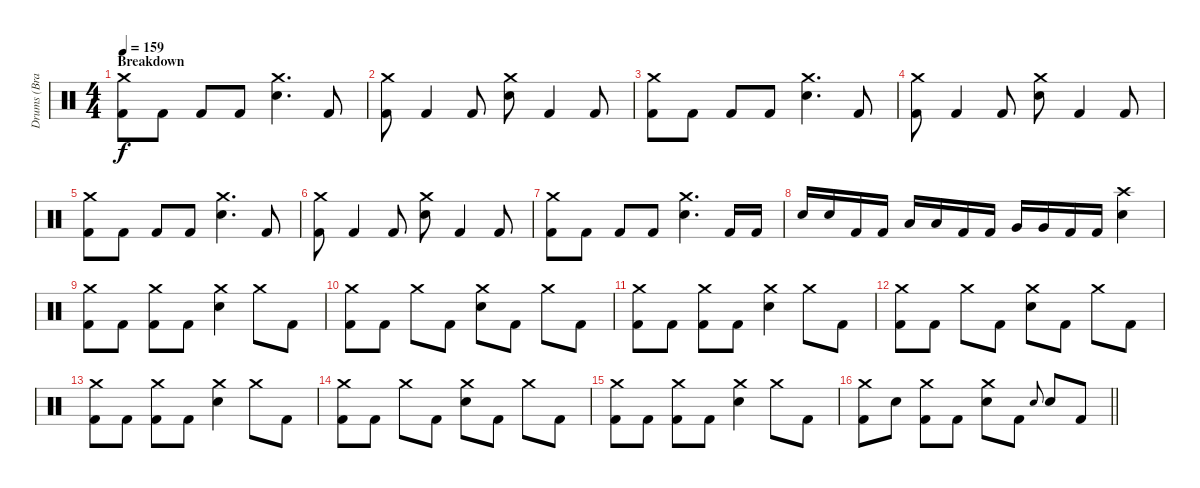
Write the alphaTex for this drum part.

\track ("Drums (Brandon Saller)" "Drums (Bra") {instrument percussion}
\staff {score}
\articulation defaults
\ts (4 4)
\section ("" "Breakdown")
\tempo 159
\clef neutral
\ks c
("Crash medium (hit)" "Kick (hit) 2").8{dy f} "Kick (hit) 2".8 "Kick (hit) 2".8 "Kick (hit) 2".8 ("Crash medium (hit)" "Electric Snare (hit)").4{d} "Kick (hit) 2".8 |
("Crash medium (hit)" "Kick (hit) 2").8 "Kick (hit) 2".4 "Kick (hit) 2".8 ("Crash medium (hit)" "Electric Snare (hit)").8 "Kick (hit) 2".4 "Kick (hit) 2".8 |
("Crash medium (hit)" "Kick (hit) 2").8 "Kick (hit) 2".8 "Kick (hit) 2".8 "Kick (hit) 2".8 ("Crash medium (hit)" "Electric Snare (hit)").4{d} "Kick (hit) 2".8 |
("Crash medium (hit)" "Kick (hit) 2").8 "Kick (hit) 2".4 "Kick (hit) 2".8 ("Crash medium (hit)" "Electric Snare (hit)").8 "Kick (hit) 2".4 "Kick (hit) 2".8 |
("Crash medium (hit)" "Kick (hit) 2").8 "Kick (hit) 2".8 "Kick (hit) 2".8 "Kick (hit) 2".8 ("Crash medium (hit)" "Electric Snare (hit)").4{d} "Kick (hit) 2".8 |
("Crash medium (hit)" "Kick (hit) 2").8 "Kick (hit) 2".4 "Kick (hit) 2".8 ("Crash medium (hit)" "Electric Snare (hit)").8 "Kick (hit) 2".4 "Kick (hit) 2".8 |
("Crash medium (hit)" "Kick (hit) 2").8 "Kick (hit) 2".8 "Kick (hit) 2".8 "Kick (hit) 2".8 ("Crash medium (hit)" "Electric Snare (hit)").4{d} "Kick (hit) 2".16 "Kick (hit) 2".16 |
"Electric Snare (hit)".16 "Electric Snare (hit)".16 "Kick (hit) 2".16 "Kick (hit) 2".16 "Low Tom (hit)".16 "Low Tom (hit)".16 "Kick (hit) 2".16 "Kick (hit) 2".16 "Very Low Tom (hit)".16 "Very Low Tom (hit)".16 "Kick (hit) 2".16 "Kick (hit) 2".16 ("Crash high (hit)" "Electric Snare (hit)").4 |
("Crash medium (hit)" "Kick (hit) 2").8 "Kick (hit) 2".8 ("Crash medium (hit)" "Kick (hit) 2").8 "Kick (hit) 2".8 ("Crash medium (hit)" "Electric Snare (hit)").4 "Crash medium (hit)".8 "Kick (hit) 2".8 |
("Crash medium (hit)" "Kick (hit) 2").8 "Kick (hit) 2".8 "Crash medium (hit)".8 "Kick (hit) 2".8 ("Crash medium (hit)" "Electric Snare (hit)").8 "Kick (hit) 2".8 "Crash medium (hit)".8 "Kick (hit) 2".8 |
("Crash medium (hit)" "Kick (hit) 2").8 "Kick (hit) 2".8 ("Crash medium (hit)" "Kick (hit) 2").8 "Kick (hit) 2".8 ("Crash medium (hit)" "Electric Snare (hit)").4 "Crash medium (hit)".8 "Kick (hit) 2".8 |
("Crash medium (hit)" "Kick (hit) 2").8 "Kick (hit) 2".8 "Crash medium (hit)".8 "Kick (hit) 2".8 ("Crash medium (hit)" "Electric Snare (hit)").8 "Kick (hit) 2".8 "Crash medium (hit)".8 "Kick (hit) 2".8 |
("Crash medium (hit)" "Kick (hit) 2").8 "Kick (hit) 2".8 ("Crash medium (hit)" "Kick (hit) 2").8 "Kick (hit) 2".8 ("Crash medium (hit)" "Electric Snare (hit)").4 "Crash medium (hit)".8 "Kick (hit) 2".8 |
("Crash medium (hit)" "Kick (hit) 2").8 "Kick (hit) 2".8 "Crash medium (hit)".8 "Kick (hit) 2".8 ("Crash medium (hit)" "Electric Snare (hit)").8 "Kick (hit) 2".8 "Crash medium (hit)".8 "Kick (hit) 2".8 |
("Crash medium (hit)" "Kick (hit) 2").8 "Kick (hit) 2".8 ("Crash medium (hit)" "Kick (hit) 2").8 "Kick (hit) 2".8 ("Crash medium (hit)" "Electric Snare (hit)").4 "Crash medium (hit)".8 "Kick (hit) 2".8 |
\barLineRight lightlight
("Crash medium (hit)" "Kick (hit) 2").8 "Electric Snare (hit)".8 ("Crash medium (hit)" "Kick (hit) 2").8 "Kick (hit) 2".8 ("Crash medium (hit)" "Electric Snare (hit)").8 "Kick (hit) 2".8 "Electric Snare (hit)".8{gr onbeat} "Electric Snare (hit)".8 "Kick (hit) 2".8
